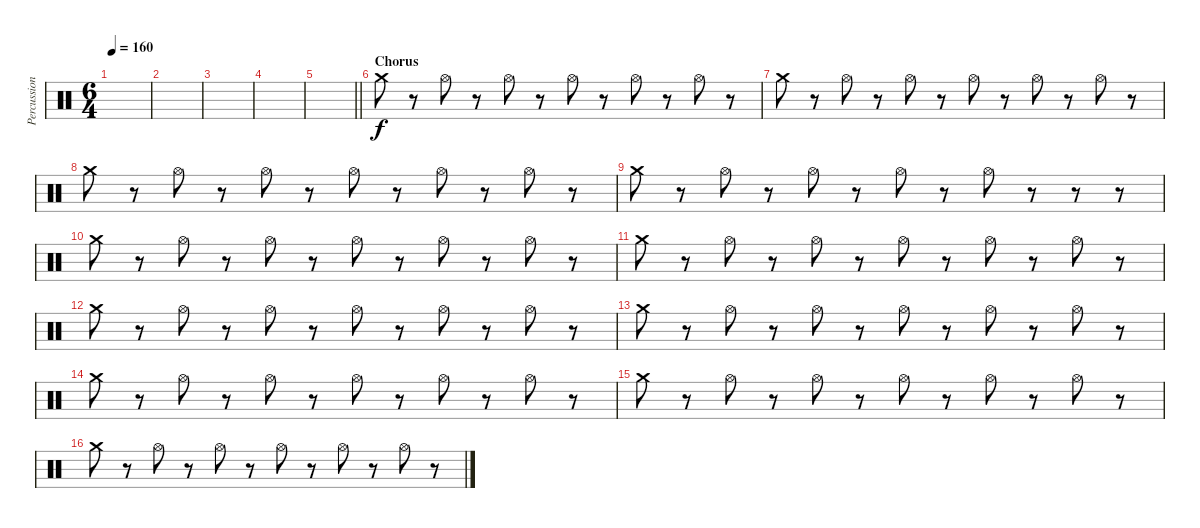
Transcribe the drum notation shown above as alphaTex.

\track ("Percussion" "Percussion") {instrument percussion}
\staff {score}
\articulation defaults
\ts (6 4)
\tempo 160
\clef neutral
\ks c
|
|
|
|
\barLineRight lightlight
|
\section ("" "Chorus")
"Crash medium (hit)".8 r.8 "Hi-Hat (open)".8 r.8 "Hi-Hat (open)".8 r.8 "Hi-Hat (open)".8 r.8 "Hi-Hat (open)".8 r.8 "Hi-Hat (open)".8 r.8 |
"Crash medium (hit)".8 r.8 "Hi-Hat (open)".8 r.8 "Hi-Hat (open)".8 r.8 "Hi-Hat (open)".8 r.8 "Hi-Hat (open)".8 r.8 "Hi-Hat (open)".8 r.8 |
"Crash medium (hit)".8 r.8 "Hi-Hat (open)".8 r.8 "Hi-Hat (open)".8 r.8 "Hi-Hat (open)".8 r.8 "Hi-Hat (open)".8 r.8 "Hi-Hat (open)".8 r.8 |
"Crash medium (hit)".8 r.8 "Hi-Hat (open)".8 r.8 "Hi-Hat (open)".8 r.8 "Hi-Hat (open)".8 r.8 "Hi-Hat (open)".8 r.8 r.8 r.8 |
"Crash medium (hit)".8 r.8 "Hi-Hat (open)".8 r.8 "Hi-Hat (open)".8 r.8 "Hi-Hat (open)".8 r.8 "Hi-Hat (open)".8 r.8 "Hi-Hat (open)".8 r.8 |
"Crash medium (hit)".8 r.8 "Hi-Hat (open)".8 r.8 "Hi-Hat (open)".8 r.8 "Hi-Hat (open)".8 r.8 "Hi-Hat (open)".8 r.8 "Hi-Hat (open)".8 r.8 |
"Crash medium (hit)".8 r.8 "Hi-Hat (open)".8 r.8 "Hi-Hat (open)".8 r.8 "Hi-Hat (open)".8 r.8 "Hi-Hat (open)".8 r.8 "Hi-Hat (open)".8 r.8 |
"Crash medium (hit)".8 r.8 "Hi-Hat (open)".8 r.8 "Hi-Hat (open)".8 r.8 "Hi-Hat (open)".8 r.8 "Hi-Hat (open)".8 r.8 "Hi-Hat (open)".8 r.8 |
"Crash medium (hit)".8 r.8 "Hi-Hat (open)".8 r.8 "Hi-Hat (open)".8 r.8 "Hi-Hat (open)".8 r.8 "Hi-Hat (open)".8 r.8 "Hi-Hat (open)".8 r.8 |
"Crash medium (hit)".8 r.8 "Hi-Hat (open)".8 r.8 "Hi-Hat (open)".8 r.8 "Hi-Hat (open)".8 r.8 "Hi-Hat (open)".8 r.8 "Hi-Hat (open)".8 r.8 |
"Crash medium (hit)".8 r.8 "Hi-Hat (open)".8 r.8 "Hi-Hat (open)".8 r.8 "Hi-Hat (open)".8 r.8 "Hi-Hat (open)".8 r.8 "Hi-Hat (open)".8 r.8
